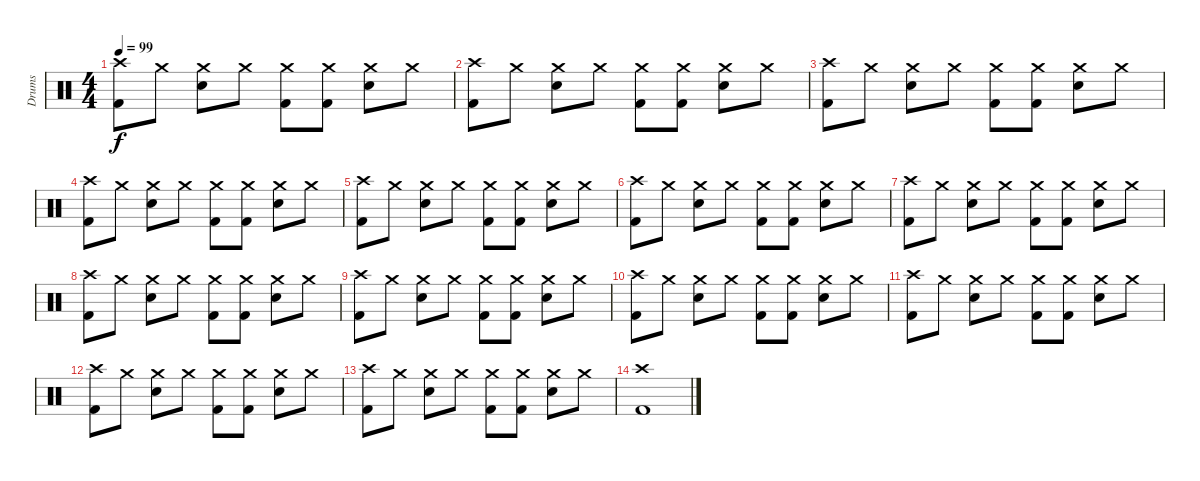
\track ("Drums" "Drums") {instrument percussion}
\staff {score}
\articulation defaults
\ts (4 4)
\tempo 99
\clef neutral
\ks c
("Crash high (hit)" "Kick (hit) 2").8{dy f} "Crash medium (hit)".8 ("Crash medium (hit)" "Electric Snare (hit)").8 "Crash medium (hit)".8 ("Crash medium (hit)" "Kick (hit) 2").8 ("Crash medium (hit)" "Kick (hit) 2").8 ("Crash medium (hit)" "Electric Snare (hit)").8 "Crash medium (hit)".8 |
("Crash high (hit)" "Kick (hit) 2").8 "Crash medium (hit)".8 ("Crash medium (hit)" "Electric Snare (hit)").8 "Crash medium (hit)".8 ("Crash medium (hit)" "Kick (hit) 2").8 ("Crash medium (hit)" "Kick (hit) 2").8 ("Crash medium (hit)" "Electric Snare (hit)").8 "Crash medium (hit)".8 |
("Crash high (hit)" "Kick (hit) 2").8 "Crash medium (hit)".8 ("Crash medium (hit)" "Electric Snare (hit)").8 "Crash medium (hit)".8 ("Crash medium (hit)" "Kick (hit) 2").8 ("Crash medium (hit)" "Kick (hit) 2").8 ("Crash medium (hit)" "Electric Snare (hit)").8 "Crash medium (hit)".8 |
("Crash high (hit)" "Kick (hit) 2").8 "Crash medium (hit)".8 ("Crash medium (hit)" "Electric Snare (hit)").8 "Crash medium (hit)".8 ("Crash medium (hit)" "Kick (hit) 2").8 ("Crash medium (hit)" "Kick (hit) 2").8 ("Crash medium (hit)" "Electric Snare (hit)").8 "Crash medium (hit)".8 |
("Crash high (hit)" "Kick (hit) 2").8 "Crash medium (hit)".8 ("Crash medium (hit)" "Electric Snare (hit)").8 "Crash medium (hit)".8 ("Crash medium (hit)" "Kick (hit) 2").8 ("Crash medium (hit)" "Kick (hit) 2").8 ("Crash medium (hit)" "Electric Snare (hit)").8 "Crash medium (hit)".8 |
("Crash high (hit)" "Kick (hit) 2").8 "Crash medium (hit)".8 ("Crash medium (hit)" "Electric Snare (hit)").8 "Crash medium (hit)".8 ("Crash medium (hit)" "Kick (hit) 2").8 ("Crash medium (hit)" "Kick (hit) 2").8 ("Crash medium (hit)" "Electric Snare (hit)").8 "Crash medium (hit)".8 |
("Crash high (hit)" "Kick (hit) 2").8 "Crash medium (hit)".8 ("Crash medium (hit)" "Electric Snare (hit)").8 "Crash medium (hit)".8 ("Crash medium (hit)" "Kick (hit) 2").8 ("Crash medium (hit)" "Kick (hit) 2").8 ("Crash medium (hit)" "Electric Snare (hit)").8 "Crash medium (hit)".8 |
("Crash high (hit)" "Kick (hit) 2").8 "Crash medium (hit)".8 ("Crash medium (hit)" "Electric Snare (hit)").8 "Crash medium (hit)".8 ("Crash medium (hit)" "Kick (hit) 2").8 ("Crash medium (hit)" "Kick (hit) 2").8 ("Crash medium (hit)" "Electric Snare (hit)").8 "Crash medium (hit)".8 |
("Crash high (hit)" "Kick (hit) 2").8 "Crash medium (hit)".8 ("Crash medium (hit)" "Electric Snare (hit)").8 "Crash medium (hit)".8 ("Crash medium (hit)" "Kick (hit) 2").8 ("Crash medium (hit)" "Kick (hit) 2").8 ("Crash medium (hit)" "Electric Snare (hit)").8 "Crash medium (hit)".8 |
("Crash high (hit)" "Kick (hit) 2").8 "Crash medium (hit)".8 ("Crash medium (hit)" "Electric Snare (hit)").8 "Crash medium (hit)".8 ("Crash medium (hit)" "Kick (hit) 2").8 ("Crash medium (hit)" "Kick (hit) 2").8 ("Crash medium (hit)" "Electric Snare (hit)").8 "Crash medium (hit)".8 |
("Crash high (hit)" "Kick (hit) 2").8 "Crash medium (hit)".8 ("Crash medium (hit)" "Electric Snare (hit)").8 "Crash medium (hit)".8 ("Crash medium (hit)" "Kick (hit) 2").8 ("Crash medium (hit)" "Kick (hit) 2").8 ("Crash medium (hit)" "Electric Snare (hit)").8 "Crash medium (hit)".8 |
("Crash high (hit)" "Kick (hit) 2").8 "Crash medium (hit)".8 ("Crash medium (hit)" "Electric Snare (hit)").8 "Crash medium (hit)".8 ("Crash medium (hit)" "Kick (hit) 2").8 ("Crash medium (hit)" "Kick (hit) 2").8 ("Crash medium (hit)" "Electric Snare (hit)").8 "Crash medium (hit)".8 |
("Crash high (hit)" "Kick (hit) 2").8 "Crash medium (hit)".8 ("Crash medium (hit)" "Electric Snare (hit)").8 "Crash medium (hit)".8 ("Crash medium (hit)" "Kick (hit) 2").8 ("Crash medium (hit)" "Kick (hit) 2").8 ("Crash medium (hit)" "Electric Snare (hit)").8 "Crash medium (hit)".8 |
("Crash high (hit)" "Kick (hit) 2").1
